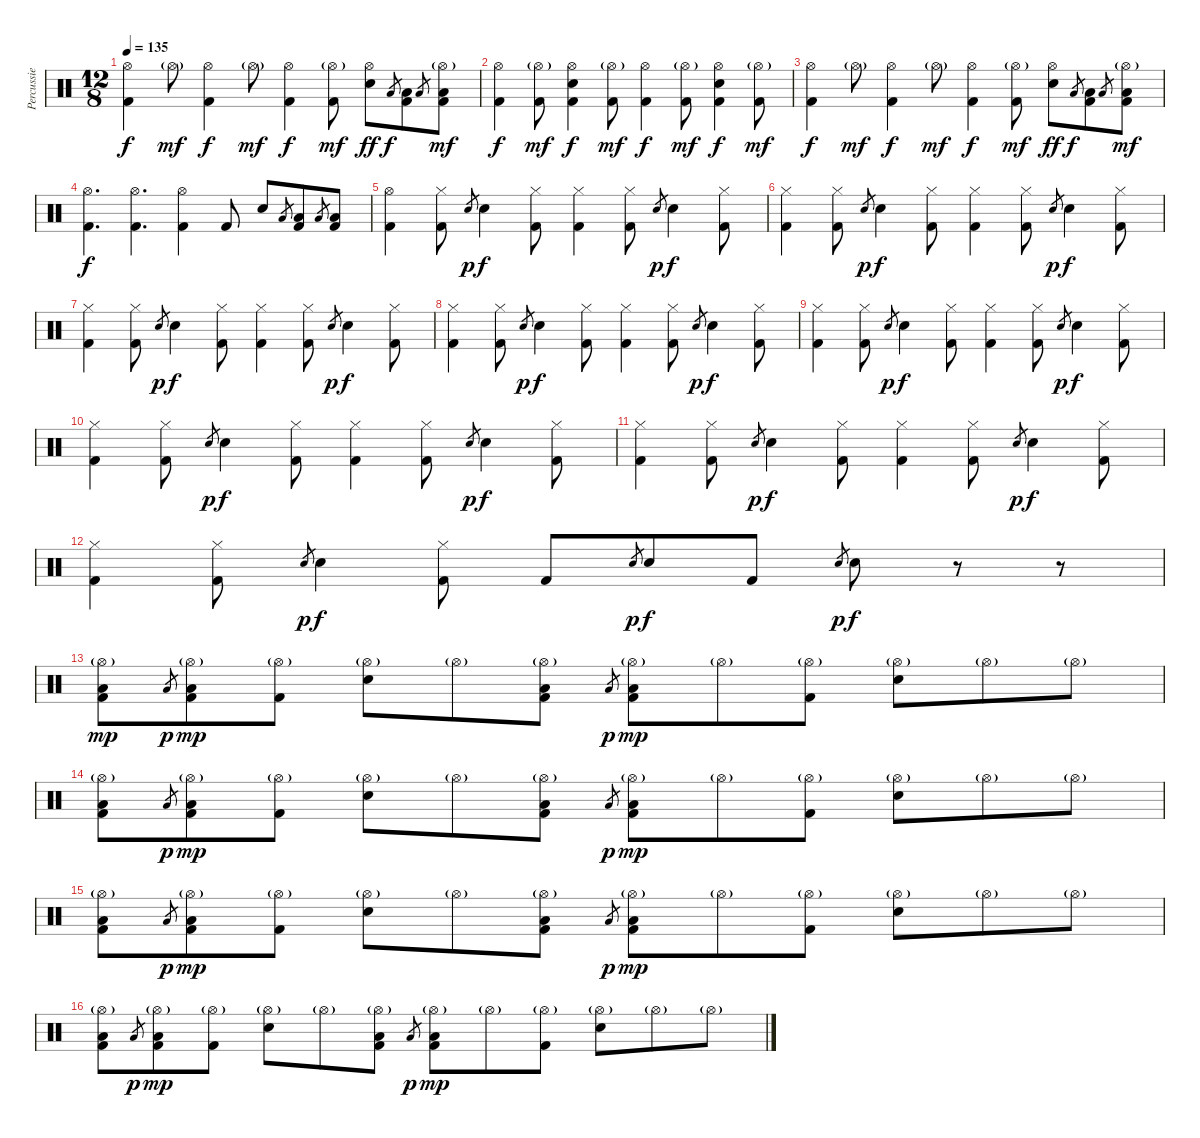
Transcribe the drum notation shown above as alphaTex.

\track ("Percussie" "Percussie") {instrument percussion}
\staff {score}
\articulation defaults
\ts (12 8)
\tempo 135
\clef neutral
\ks c
("Hi-Hat (open)" "Kick (hit) 2").4{dy f} "Hi-Hat (open)"{g}.8{dy mf} ("Hi-Hat (open)" "Kick (hit) 2").4{dy f} "Hi-Hat (open)"{g}.8{dy mf} ("Hi-Hat (open)" "Kick (hit) 2").4{dy f} ("Hi-Hat (open)"{g} "Kick (hit) 2").8{dy mf} ("Hi-Hat (open)" "Electric Snare (hit)").8{dy ff} "Low Tom (hit)".8{gr dy f} ("Low Tom (hit)" "Kick (hit) 2").8 "Low Tom (hit)".8{gr} ("Hi-Hat (open)"{g} "Low Tom (hit)" "Kick (hit) 2").8{dy mf} |
("Hi-Hat (open)" "Kick (hit) 2").4{dy f} ("Hi-Hat (open)"{g} "Kick (hit) 2").8{dy mf} ("Hi-Hat (open)" "Electric Snare (hit)" "Kick (hit) 2").4{dy f} ("Hi-Hat (open)"{g} "Kick (hit) 2").8{dy mf} ("Hi-Hat (open)" "Kick (hit) 2").4{dy f} ("Hi-Hat (open)"{g} "Kick (hit) 2").8{dy mf} ("Hi-Hat (open)" "Electric Snare (hit)" "Kick (hit) 2").4{dy f} ("Hi-Hat (open)"{g} "Kick (hit) 2").8{dy mf} |
("Hi-Hat (open)" "Kick (hit) 2").4{dy f} "Hi-Hat (open)"{g}.8{dy mf} ("Hi-Hat (open)" "Kick (hit) 2").4{dy f} "Hi-Hat (open)"{g}.8{dy mf} ("Hi-Hat (open)" "Kick (hit) 2").4{dy f} ("Hi-Hat (open)"{g} "Kick (hit) 2").8{dy mf} ("Hi-Hat (open)" "Electric Snare (hit)").8{dy ff} "Low Tom (hit)".8{gr dy f} ("Low Tom (hit)" "Kick (hit) 2").8 "Low Tom (hit)".8{gr} ("Hi-Hat (open)"{g} "Low Tom (hit)" "Kick (hit) 2").8{dy mf} |
("Hi-Hat (open)" "Kick (hit) 2").4{d dy f} ("Hi-Hat (open)" "Kick (hit) 2").4{d} ("Hi-Hat (open)" "Kick (hit) 2").4 "Kick (hit) 2".8 "Electric Snare (hit)".8 "Low Tom (hit)".8{gr} ("Low Tom (hit)" "Kick (hit) 2").8 "Low Tom (hit)".8{gr} ("Low Tom (hit)" "Kick (hit) 2").8 |
("Hi-Hat (open)" "Kick (hit) 2").4 ("Hi-Hat (closed)" "Kick (hit) 2").8 "Electric Snare (hit)".8{gr dy p} "Electric Snare (hit)".4{dy f} ("Hi-Hat (closed)" "Kick (hit) 2").8 ("Hi-Hat (closed)" "Kick (hit) 2").4 ("Hi-Hat (closed)" "Kick (hit) 2").8 "Electric Snare (hit)".8{gr dy p} "Electric Snare (hit)".4{dy f} ("Hi-Hat (closed)" "Kick (hit) 2").8 |
("Hi-Hat (closed)" "Kick (hit) 2").4 ("Hi-Hat (closed)" "Kick (hit) 2").8 "Electric Snare (hit)".8{gr dy p} "Electric Snare (hit)".4{dy f} ("Hi-Hat (closed)" "Kick (hit) 2").8 ("Hi-Hat (closed)" "Kick (hit) 2").4 ("Hi-Hat (closed)" "Kick (hit) 2").8 "Electric Snare (hit)".8{gr dy p} "Electric Snare (hit)".4{dy f} ("Hi-Hat (closed)" "Kick (hit) 2").8 |
("Hi-Hat (closed)" "Kick (hit) 2").4 ("Hi-Hat (closed)" "Kick (hit) 2").8 "Electric Snare (hit)".8{gr dy p} "Electric Snare (hit)".4{dy f} ("Hi-Hat (closed)" "Kick (hit) 2").8 ("Hi-Hat (closed)" "Kick (hit) 2").4 ("Hi-Hat (closed)" "Kick (hit) 2").8 "Electric Snare (hit)".8{gr dy p} "Electric Snare (hit)".4{dy f} ("Hi-Hat (closed)" "Kick (hit) 2").8 |
("Hi-Hat (closed)" "Kick (hit) 2").4 ("Hi-Hat (closed)" "Kick (hit) 2").8 "Electric Snare (hit)".8{gr dy p} "Electric Snare (hit)".4{dy f} ("Hi-Hat (closed)" "Kick (hit) 2").8 ("Hi-Hat (closed)" "Kick (hit) 2").4 ("Hi-Hat (closed)" "Kick (hit) 2").8 "Electric Snare (hit)".8{gr dy p} "Electric Snare (hit)".4{dy f} ("Hi-Hat (closed)" "Kick (hit) 2").8 |
("Hi-Hat (closed)" "Kick (hit) 2").4 ("Hi-Hat (closed)" "Kick (hit) 2").8 "Electric Snare (hit)".8{gr dy p} "Electric Snare (hit)".4{dy f} ("Hi-Hat (closed)" "Kick (hit) 2").8 ("Hi-Hat (closed)" "Kick (hit) 2").4 ("Hi-Hat (closed)" "Kick (hit) 2").8 "Electric Snare (hit)".8{gr dy p} "Electric Snare (hit)".4{dy f} ("Hi-Hat (closed)" "Kick (hit) 2").8 |
("Hi-Hat (closed)" "Kick (hit) 2").4 ("Hi-Hat (closed)" "Kick (hit) 2").8 "Electric Snare (hit)".8{gr dy p} "Electric Snare (hit)".4{dy f} ("Hi-Hat (closed)" "Kick (hit) 2").8 ("Hi-Hat (closed)" "Kick (hit) 2").4 ("Hi-Hat (closed)" "Kick (hit) 2").8 "Electric Snare (hit)".8{gr dy p} "Electric Snare (hit)".4{dy f} ("Hi-Hat (closed)" "Kick (hit) 2").8 |
("Hi-Hat (closed)" "Kick (hit) 2").4 ("Hi-Hat (closed)" "Kick (hit) 2").8 "Electric Snare (hit)".8{gr dy p} "Electric Snare (hit)".4{dy f} ("Hi-Hat (closed)" "Kick (hit) 2").8 ("Hi-Hat (closed)" "Kick (hit) 2").4 ("Hi-Hat (closed)" "Kick (hit) 2").8 "Electric Snare (hit)".8{gr dy p} "Electric Snare (hit)".4{dy f} ("Hi-Hat (closed)" "Kick (hit) 2").8 |
("Hi-Hat (closed)" "Kick (hit) 2").4 ("Hi-Hat (closed)" "Kick (hit) 2").8 "Electric Snare (hit)".8{gr dy p} "Electric Snare (hit)".4{dy f} ("Hi-Hat (closed)" "Kick (hit) 2").8 "Kick (hit) 2".8 "Electric Snare (hit)".8{gr dy p} "Electric Snare (hit)".8{dy f} "Kick (hit) 2".8 "Electric Snare (hit)".8{gr dy p} "Electric Snare (hit)".8{dy f} r.8 r.8 |
("Hi-Hat (open)"{g} "Low Tom (hit)" "Kick (hit) 2").8{dy mp} "Low Tom (hit)".8{gr dy p} ("Hi-Hat (open)"{g} "Low Tom (hit)" "Kick (hit) 2").8{dy mp} ("Hi-Hat (open)"{g} "Kick (hit) 2").8 ("Hi-Hat (open)"{g} "Electric Snare (hit)").8 "Hi-Hat (open)"{g}.8 ("Hi-Hat (open)"{g} "Low Tom (hit)" "Kick (hit) 2").8 "Low Tom (hit)".8{gr dy p} ("Hi-Hat (open)"{g} "Low Tom (hit)" "Kick (hit) 2").8{dy mp} "Hi-Hat (open)"{g}.8 ("Hi-Hat (open)"{g} "Kick (hit) 2").8 ("Hi-Hat (open)"{g} "Electric Snare (hit)").8 "Hi-Hat (open)"{g}.8 "Hi-Hat (open)"{g}.8 |
("Hi-Hat (open)"{g} "Low Tom (hit)" "Kick (hit) 2").8 "Low Tom (hit)".8{gr dy p} ("Hi-Hat (open)"{g} "Low Tom (hit)" "Kick (hit) 2").8{dy mp} ("Hi-Hat (open)"{g} "Kick (hit) 2").8 ("Hi-Hat (open)"{g} "Electric Snare (hit)").8 "Hi-Hat (open)"{g}.8 ("Hi-Hat (open)"{g} "Low Tom (hit)" "Kick (hit) 2").8 "Low Tom (hit)".8{gr dy p} ("Hi-Hat (open)"{g} "Low Tom (hit)" "Kick (hit) 2").8{dy mp} "Hi-Hat (open)"{g}.8 ("Hi-Hat (open)"{g} "Kick (hit) 2").8 ("Hi-Hat (open)"{g} "Electric Snare (hit)").8 "Hi-Hat (open)"{g}.8 "Hi-Hat (open)"{g}.8 |
("Hi-Hat (open)"{g} "Low Tom (hit)" "Kick (hit) 2").8 "Low Tom (hit)".8{gr dy p} ("Hi-Hat (open)"{g} "Low Tom (hit)" "Kick (hit) 2").8{dy mp} ("Hi-Hat (open)"{g} "Kick (hit) 2").8 ("Hi-Hat (open)"{g} "Electric Snare (hit)").8 "Hi-Hat (open)"{g}.8 ("Hi-Hat (open)"{g} "Low Tom (hit)" "Kick (hit) 2").8 "Low Tom (hit)".8{gr dy p} ("Hi-Hat (open)"{g} "Low Tom (hit)" "Kick (hit) 2").8{dy mp} "Hi-Hat (open)"{g}.8 ("Hi-Hat (open)"{g} "Kick (hit) 2").8 ("Hi-Hat (open)"{g} "Electric Snare (hit)").8 "Hi-Hat (open)"{g}.8 "Hi-Hat (open)"{g}.8 |
("Hi-Hat (open)"{g} "Low Tom (hit)" "Kick (hit) 2").8 "Low Tom (hit)".8{gr dy p} ("Hi-Hat (open)"{g} "Low Tom (hit)" "Kick (hit) 2").8{dy mp} ("Hi-Hat (open)"{g} "Kick (hit) 2").8 ("Hi-Hat (open)"{g} "Electric Snare (hit)").8 "Hi-Hat (open)"{g}.8 ("Hi-Hat (open)"{g} "Low Tom (hit)" "Kick (hit) 2").8 "Low Tom (hit)".8{gr dy p} ("Hi-Hat (open)"{g} "Low Tom (hit)" "Kick (hit) 2").8{dy mp} "Hi-Hat (open)"{g}.8 ("Hi-Hat (open)"{g} "Kick (hit) 2").8 ("Hi-Hat (open)"{g} "Electric Snare (hit)").8 "Hi-Hat (open)"{g}.8 "Hi-Hat (open)"{g}.8
